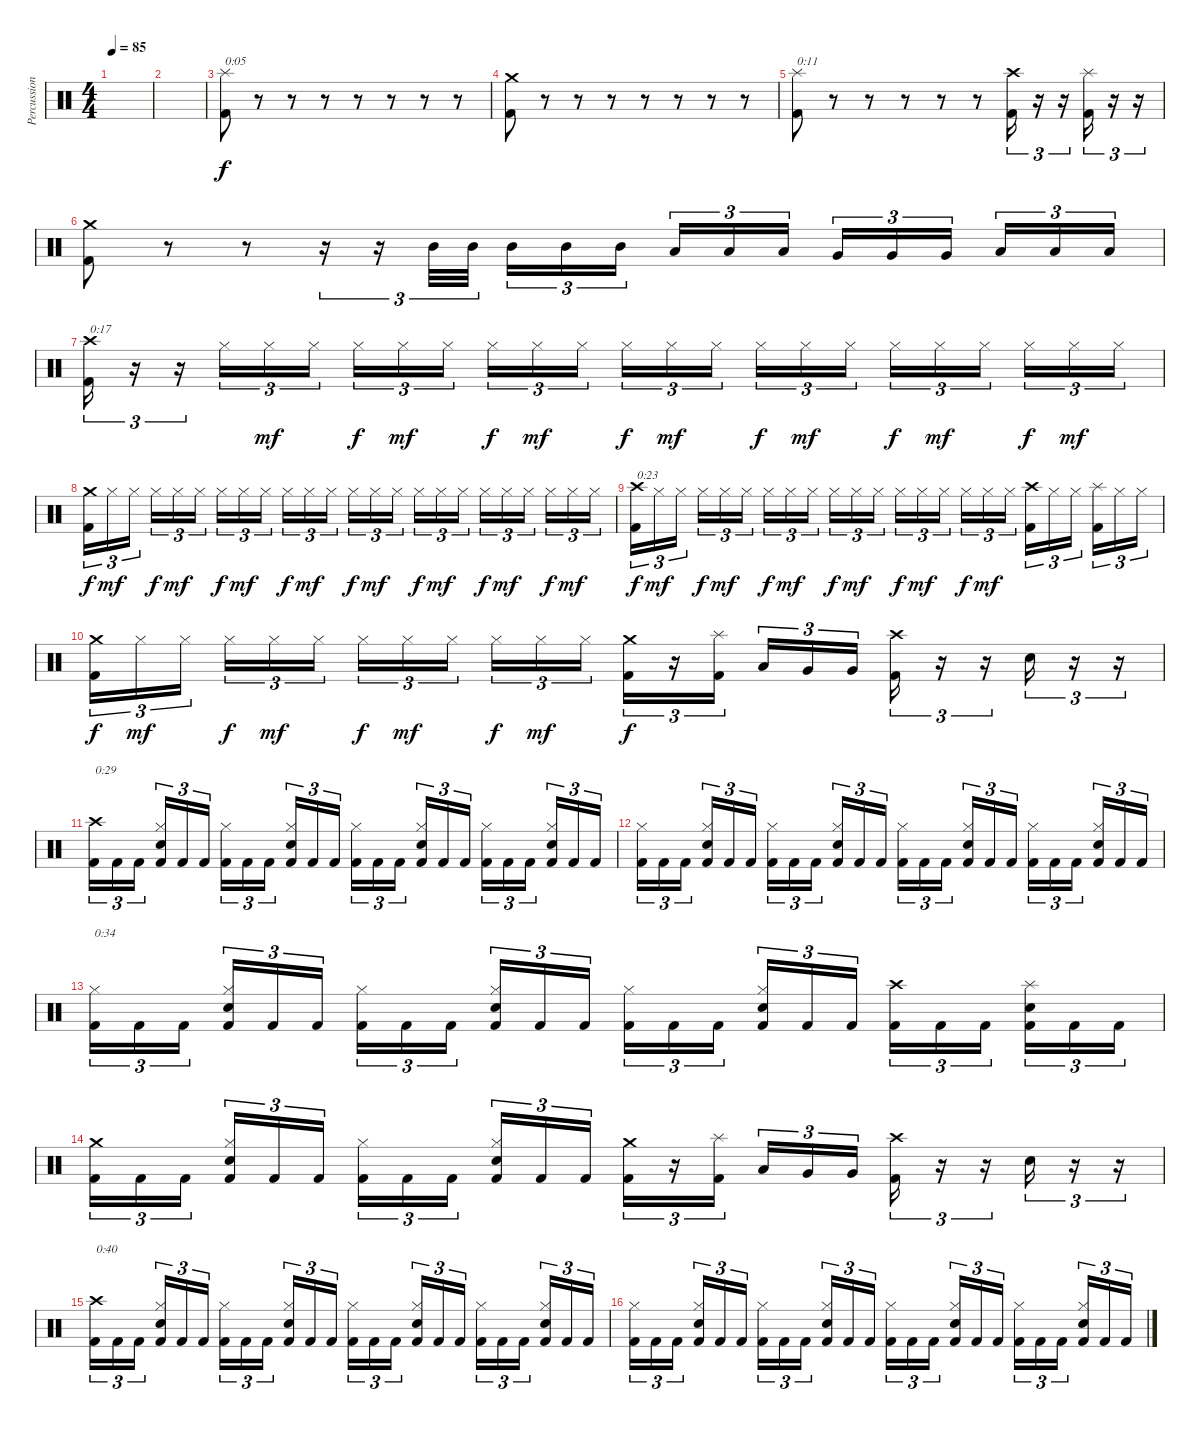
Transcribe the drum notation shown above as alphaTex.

\track ("Percussion" "Percussion") {instrument percussion}
\staff {score}
\articulation defaults
\ts (4 4)
\tempo 85
\clef neutral
\ks c
|
|
("Splash (hit)" "Kick (hit) 2").8{txt "0:05"} r.8 r.8 r.8 r.8 r.8 r.8 r.8 |
("Crash medium (hit)" "Kick (hit) 2").8 r.8 r.8 r.8 r.8 r.8 r.8 r.8 |
("Splash (hit)" "Kick (hit) 2").8{txt "0:11"} r.8 r.8 r.8 r.8 r.8 ("Crash high (hit)" "Kick (hit) 2").16{tu (3 2)} r.16{tu (3 2)} r.16{tu (3 2)} ("Splash (hit)" "Kick (hit) 2").16{tu (3 2)} r.16{tu (3 2)} r.16{tu (3 2)} |
("Crash medium (hit)" "Kick (hit) 2").8 r.8 r.8 r.16{tu (3 2)} r.16{tu (3 2)} "Mid Tom (hit)".32{tu (3 2)} "Mid Tom (hit)".32{tu (3 2)} "Mid Tom (hit)".16{tu (3 2)} "Mid Tom (hit)".16{tu (3 2)} "Mid Tom (hit)".16{tu (3 2)} "Low Tom (hit)".16{tu (3 2)} "Low Tom (hit)".16{tu (3 2)} "Low Tom (hit)".16{tu (3 2)} "Very Low Tom (hit)".16{tu (3 2)} "Very Low Tom (hit)".16{tu (3 2)} "Very Low Tom (hit)".16{tu (3 2)} "Low Floor Tom (hit)".16{tu (3 2)} "Low Floor Tom (hit)".16{tu (3 2)} "Low Floor Tom (hit)".16{tu (3 2)} |
("Crash high (hit)" "Kick (hit) 2").16{tu (3 2) txt "0:17"} r.16{tu (3 2)} r.16{tu (3 2)} "Hi-Hat (closed)".16{tu (3 2)} "Hi-Hat (closed)".16{tu (3 2) dy mf} "Hi-Hat (closed)".16{tu (3 2)} "Hi-Hat (closed)".16{tu (3 2) dy f} "Hi-Hat (closed)".16{tu (3 2) dy mf} "Hi-Hat (closed)".16{tu (3 2)} "Hi-Hat (closed)".16{tu (3 2) dy f} "Hi-Hat (closed)".16{tu (3 2) dy mf} "Hi-Hat (closed)".16{tu (3 2)} "Hi-Hat (closed)".16{tu (3 2) dy f} "Hi-Hat (closed)".16{tu (3 2) dy mf} "Hi-Hat (closed)".16{tu (3 2)} "Hi-Hat (closed)".16{tu (3 2) dy f} "Hi-Hat (closed)".16{tu (3 2) dy mf} "Hi-Hat (closed)".16{tu (3 2)} "Hi-Hat (closed)".16{tu (3 2) dy f} "Hi-Hat (closed)".16{tu (3 2) dy mf} "Hi-Hat (closed)".16{tu (3 2)} "Hi-Hat (closed)".16{tu (3 2) dy f} "Hi-Hat (closed)".16{tu (3 2) dy mf} "Hi-Hat (closed)".16{tu (3 2)} |
("Crash medium (hit)" "Kick (hit) 2").16{tu (3 2) dy f} "Hi-Hat (closed)".16{tu (3 2) dy mf} "Hi-Hat (closed)".16{tu (3 2)} "Hi-Hat (closed)".16{tu (3 2) dy f} "Hi-Hat (closed)".16{tu (3 2) dy mf} "Hi-Hat (closed)".16{tu (3 2)} "Hi-Hat (closed)".16{tu (3 2) dy f} "Hi-Hat (closed)".16{tu (3 2) dy mf} "Hi-Hat (closed)".16{tu (3 2)} "Hi-Hat (closed)".16{tu (3 2) dy f} "Hi-Hat (closed)".16{tu (3 2) dy mf} "Hi-Hat (closed)".16{tu (3 2)} "Hi-Hat (closed)".16{tu (3 2) dy f} "Hi-Hat (closed)".16{tu (3 2) dy mf} "Hi-Hat (closed)".16{tu (3 2)} "Hi-Hat (closed)".16{tu (3 2) dy f} "Hi-Hat (closed)".16{tu (3 2) dy mf} "Hi-Hat (closed)".16{tu (3 2)} "Hi-Hat (closed)".16{tu (3 2) dy f} "Hi-Hat (closed)".16{tu (3 2) dy mf} "Hi-Hat (closed)".16{tu (3 2)} "Hi-Hat (closed)".16{tu (3 2) dy f} "Hi-Hat (closed)".16{tu (3 2) dy mf} "Hi-Hat (closed)".16{tu (3 2)} |
("Crash high (hit)" "Kick (hit) 2").16{tu (3 2) txt "0:23" dy f} "Hi-Hat (closed)".16{tu (3 2) dy mf} "Hi-Hat (closed)".16{tu (3 2)} "Hi-Hat (closed)".16{tu (3 2) dy f} "Hi-Hat (closed)".16{tu (3 2) dy mf} "Hi-Hat (closed)".16{tu (3 2)} "Hi-Hat (closed)".16{tu (3 2) dy f} "Hi-Hat (closed)".16{tu (3 2) dy mf} "Hi-Hat (closed)".16{tu (3 2)} "Hi-Hat (closed)".16{tu (3 2) dy f} "Hi-Hat (closed)".16{tu (3 2) dy mf} "Hi-Hat (closed)".16{tu (3 2)} "Hi-Hat (closed)".16{tu (3 2) dy f} "Hi-Hat (closed)".16{tu (3 2) dy mf} "Hi-Hat (closed)".16{tu (3 2)} "Hi-Hat (closed)".16{tu (3 2) dy f} "Hi-Hat (closed)".16{tu (3 2) dy mf} "Hi-Hat (closed)".16{tu (3 2)} ("Crash high (hit)" "Kick (hit) 2").16{tu (3 2)} "Hi-Hat (closed)".16{tu (3 2)} "Hi-Hat (closed)".16{tu (3 2)} ("Splash (hit)" "Kick (hit) 2").16{tu (3 2)} "Hi-Hat (closed)".16{tu (3 2)} "Hi-Hat (closed)".16{tu (3 2)} |
("Crash medium (hit)" "Kick (hit) 2").16{tu (3 2) dy f} "Hi-Hat (closed)".16{tu (3 2) dy mf} "Hi-Hat (closed)".16{tu (3 2)} "Hi-Hat (closed)".16{tu (3 2) dy f} "Hi-Hat (closed)".16{tu (3 2) dy mf} "Hi-Hat (closed)".16{tu (3 2)} "Hi-Hat (closed)".16{tu (3 2) dy f} "Hi-Hat (closed)".16{tu (3 2) dy mf} "Hi-Hat (closed)".16{tu (3 2)} "Hi-Hat (closed)".16{tu (3 2) dy f} "Hi-Hat (closed)".16{tu (3 2) dy mf} "Hi-Hat (closed)".16{tu (3 2)} ("Crash medium (hit)" "Kick (hit) 2").16{tu (3 2) dy f} r.16{tu (3 2)} ("Splash (hit)" "Kick (hit) 2").16{tu (3 2)} "Low Tom (hit)".16{tu (3 2)} "Very Low Tom (hit)".16{tu (3 2)} "Very Low Tom (hit)".16{tu (3 2)} ("Crash high (hit)" "Kick (hit) 2").16{tu (3 2)} r.16{tu (3 2)} r.16{tu (3 2)} "Electric Snare (hit)".16{tu (3 2)} r.16{tu (3 2)} r.16{tu (3 2)} |
("Crash high (hit)" "Kick (hit) 2").16{tu (3 2) txt "0:29"} "Kick (hit) 2".16{tu (3 2)} "Kick (hit) 2".16{tu (3 2)} ("Hi-Hat (closed)" "Electric Snare (hit)" "Kick (hit) 2").16{tu (3 2)} "Kick (hit) 2".16{tu (3 2)} "Kick (hit) 2".16{tu (3 2)} ("Hi-Hat (closed)" "Kick (hit) 2").16{tu (3 2)} "Kick (hit) 2".16{tu (3 2)} "Kick (hit) 2".16{tu (3 2)} ("Hi-Hat (closed)" "Electric Snare (hit)" "Kick (hit) 2").16{tu (3 2)} "Kick (hit) 2".16{tu (3 2)} "Kick (hit) 2".16{tu (3 2)} ("Hi-Hat (closed)" "Kick (hit) 2").16{tu (3 2)} "Kick (hit) 2".16{tu (3 2)} "Kick (hit) 2".16{tu (3 2)} ("Hi-Hat (closed)" "Electric Snare (hit)" "Kick (hit) 2").16{tu (3 2)} "Kick (hit) 2".16{tu (3 2)} "Kick (hit) 2".16{tu (3 2)} ("Hi-Hat (closed)" "Kick (hit) 2").16{tu (3 2)} "Kick (hit) 2".16{tu (3 2)} "Kick (hit) 2".16{tu (3 2)} ("Hi-Hat (closed)" "Electric Snare (hit)" "Kick (hit) 2").16{tu (3 2)} "Kick (hit) 2".16{tu (3 2)} "Kick (hit) 2".16{tu (3 2)} |
("Hi-Hat (closed)" "Kick (hit) 2").16{tu (3 2)} "Kick (hit) 2".16{tu (3 2)} "Kick (hit) 2".16{tu (3 2)} ("Hi-Hat (closed)" "Electric Snare (hit)" "Kick (hit) 2").16{tu (3 2)} "Kick (hit) 2".16{tu (3 2)} "Kick (hit) 2".16{tu (3 2)} ("Hi-Hat (closed)" "Kick (hit) 2").16{tu (3 2)} "Kick (hit) 2".16{tu (3 2)} "Kick (hit) 2".16{tu (3 2)} ("Hi-Hat (closed)" "Electric Snare (hit)" "Kick (hit) 2").16{tu (3 2)} "Kick (hit) 2".16{tu (3 2)} "Kick (hit) 2".16{tu (3 2)} ("Hi-Hat (closed)" "Kick (hit) 2").16{tu (3 2)} "Kick (hit) 2".16{tu (3 2)} "Kick (hit) 2".16{tu (3 2)} ("Hi-Hat (closed)" "Electric Snare (hit)" "Kick (hit) 2").16{tu (3 2)} "Kick (hit) 2".16{tu (3 2)} "Kick (hit) 2".16{tu (3 2)} ("Hi-Hat (closed)" "Kick (hit) 2").16{tu (3 2)} "Kick (hit) 2".16{tu (3 2)} "Kick (hit) 2".16{tu (3 2)} ("Hi-Hat (closed)" "Electric Snare (hit)" "Kick (hit) 2").16{tu (3 2)} "Kick (hit) 2".16{tu (3 2)} "Kick (hit) 2".16{tu (3 2)} |
("Hi-Hat (closed)" "Kick (hit) 2").16{tu (3 2) txt "0:34"} "Kick (hit) 2".16{tu (3 2)} "Kick (hit) 2".16{tu (3 2)} ("Hi-Hat (closed)" "Electric Snare (hit)" "Kick (hit) 2").16{tu (3 2)} "Kick (hit) 2".16{tu (3 2)} "Kick (hit) 2".16{tu (3 2)} ("Hi-Hat (closed)" "Kick (hit) 2").16{tu (3 2)} "Kick (hit) 2".16{tu (3 2)} "Kick (hit) 2".16{tu (3 2)} ("Hi-Hat (closed)" "Electric Snare (hit)" "Kick (hit) 2").16{tu (3 2)} "Kick (hit) 2".16{tu (3 2)} "Kick (hit) 2".16{tu (3 2)} ("Hi-Hat (closed)" "Kick (hit) 2").16{tu (3 2)} "Kick (hit) 2".16{tu (3 2)} "Kick (hit) 2".16{tu (3 2)} ("Hi-Hat (closed)" "Electric Snare (hit)" "Kick (hit) 2").16{tu (3 2)} "Kick (hit) 2".16{tu (3 2)} "Kick (hit) 2".16{tu (3 2)} ("Crash high (hit)" "Kick (hit) 2").16{tu (3 2)} "Kick (hit) 2".16{tu (3 2)} "Kick (hit) 2".16{tu (3 2)} ("Splash (hit)" "Electric Snare (hit)" "Kick (hit) 2").16{tu (3 2)} "Kick (hit) 2".16{tu (3 2)} "Kick (hit) 2".16{tu (3 2)} |
("Crash medium (hit)" "Kick (hit) 2").16{tu (3 2)} "Kick (hit) 2".16{tu (3 2)} "Kick (hit) 2".16{tu (3 2)} ("Hi-Hat (closed)" "Electric Snare (hit)" "Kick (hit) 2").16{tu (3 2)} "Kick (hit) 2".16{tu (3 2)} "Kick (hit) 2".16{tu (3 2)} ("Hi-Hat (closed)" "Kick (hit) 2").16{tu (3 2)} "Kick (hit) 2".16{tu (3 2)} "Kick (hit) 2".16{tu (3 2)} ("Hi-Hat (closed)" "Electric Snare (hit)" "Kick (hit) 2").16{tu (3 2)} "Kick (hit) 2".16{tu (3 2)} "Kick (hit) 2".16{tu (3 2)} ("Crash medium (hit)" "Kick (hit) 2").16{tu (3 2)} r.16{tu (3 2)} ("Splash (hit)" "Kick (hit) 2").16{tu (3 2)} "Low Tom (hit)".16{tu (3 2)} "Very Low Tom (hit)".16{tu (3 2)} "Very Low Tom (hit)".16{tu (3 2)} ("Crash high (hit)" "Kick (hit) 2").16{tu (3 2)} r.16{tu (3 2)} r.16{tu (3 2)} "Electric Snare (hit)".16{tu (3 2)} r.16{tu (3 2)} r.16{tu (3 2)} |
("Crash high (hit)" "Kick (hit) 2").16{tu (3 2) txt "0:40"} "Kick (hit) 2".16{tu (3 2)} "Kick (hit) 2".16{tu (3 2)} ("Hi-Hat (closed)" "Electric Snare (hit)" "Kick (hit) 2").16{tu (3 2)} "Kick (hit) 2".16{tu (3 2)} "Kick (hit) 2".16{tu (3 2)} ("Hi-Hat (closed)" "Kick (hit) 2").16{tu (3 2)} "Kick (hit) 2".16{tu (3 2)} "Kick (hit) 2".16{tu (3 2)} ("Hi-Hat (closed)" "Electric Snare (hit)" "Kick (hit) 2").16{tu (3 2)} "Kick (hit) 2".16{tu (3 2)} "Kick (hit) 2".16{tu (3 2)} ("Hi-Hat (closed)" "Kick (hit) 2").16{tu (3 2)} "Kick (hit) 2".16{tu (3 2)} "Kick (hit) 2".16{tu (3 2)} ("Hi-Hat (closed)" "Electric Snare (hit)" "Kick (hit) 2").16{tu (3 2)} "Kick (hit) 2".16{tu (3 2)} "Kick (hit) 2".16{tu (3 2)} ("Hi-Hat (closed)" "Kick (hit) 2").16{tu (3 2)} "Kick (hit) 2".16{tu (3 2)} "Kick (hit) 2".16{tu (3 2)} ("Hi-Hat (closed)" "Electric Snare (hit)" "Kick (hit) 2").16{tu (3 2)} "Kick (hit) 2".16{tu (3 2)} "Kick (hit) 2".16{tu (3 2)} |
("Hi-Hat (closed)" "Kick (hit) 2").16{tu (3 2)} "Kick (hit) 2".16{tu (3 2)} "Kick (hit) 2".16{tu (3 2)} ("Hi-Hat (closed)" "Electric Snare (hit)" "Kick (hit) 2").16{tu (3 2)} "Kick (hit) 2".16{tu (3 2)} "Kick (hit) 2".16{tu (3 2)} ("Hi-Hat (closed)" "Kick (hit) 2").16{tu (3 2)} "Kick (hit) 2".16{tu (3 2)} "Kick (hit) 2".16{tu (3 2)} ("Hi-Hat (closed)" "Electric Snare (hit)" "Kick (hit) 2").16{tu (3 2)} "Kick (hit) 2".16{tu (3 2)} "Kick (hit) 2".16{tu (3 2)} ("Hi-Hat (closed)" "Kick (hit) 2").16{tu (3 2)} "Kick (hit) 2".16{tu (3 2)} "Kick (hit) 2".16{tu (3 2)} ("Hi-Hat (closed)" "Electric Snare (hit)" "Kick (hit) 2").16{tu (3 2)} "Kick (hit) 2".16{tu (3 2)} "Kick (hit) 2".16{tu (3 2)} ("Hi-Hat (closed)" "Kick (hit) 2").16{tu (3 2)} "Kick (hit) 2".16{tu (3 2)} "Kick (hit) 2".16{tu (3 2)} ("Hi-Hat (closed)" "Electric Snare (hit)" "Kick (hit) 2").16{tu (3 2)} "Kick (hit) 2".16{tu (3 2)} "Kick (hit) 2".16{tu (3 2)}
